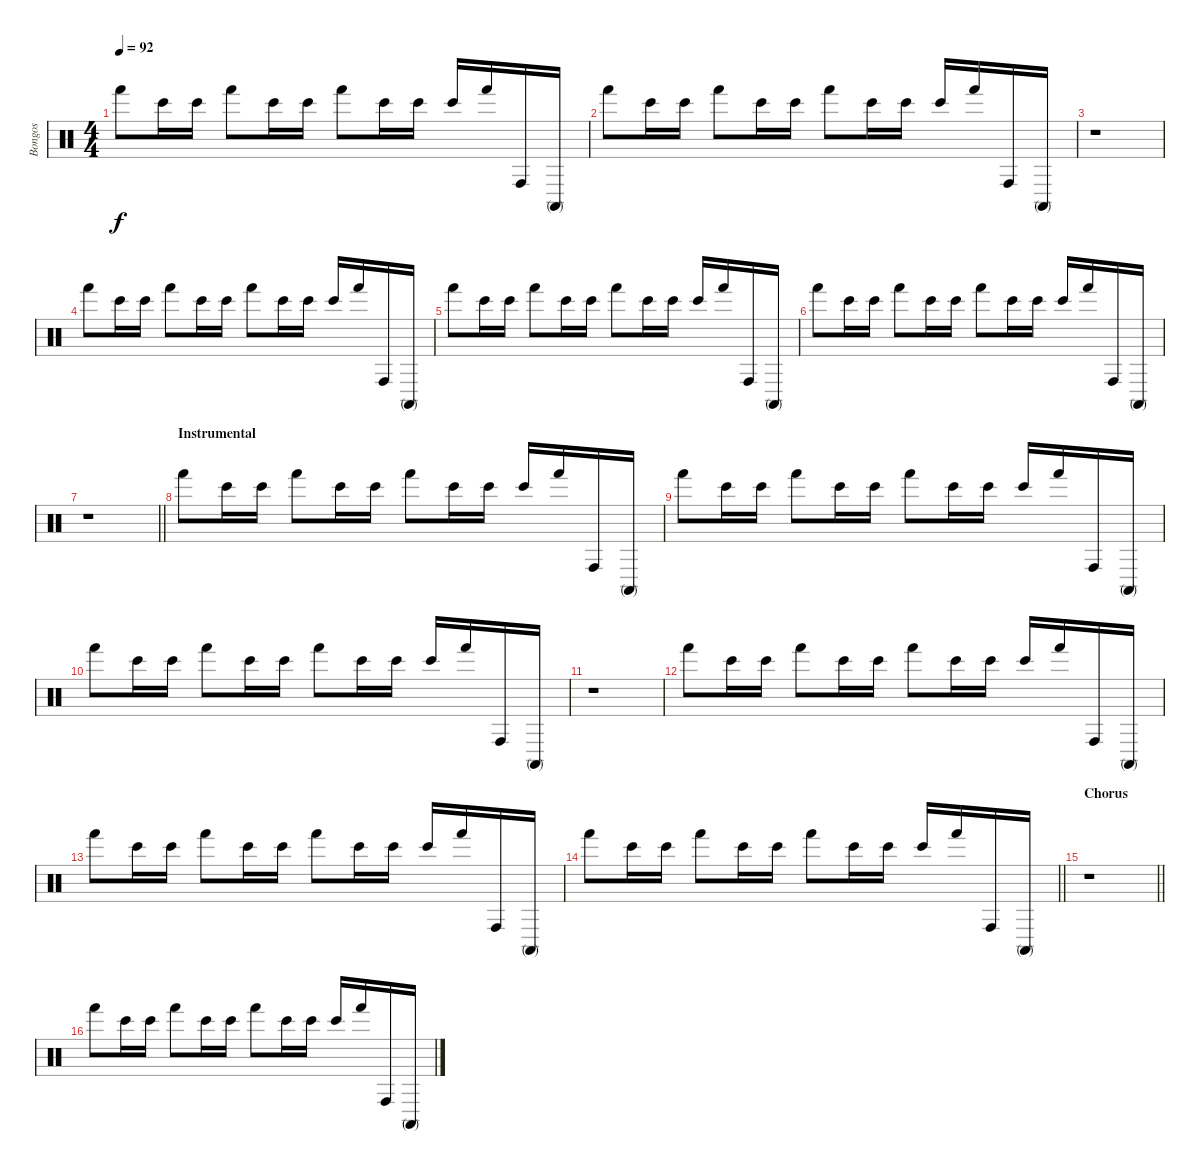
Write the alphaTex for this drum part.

\track ("Bongos" "Bongos") {instrument percussion}
\staff {score}
\articulation defaults
\ts (4 4)
\tempo 92
\clef neutral
\ks c "Hand (hit)".8{dy f} "Bongo High (hit)".16 "Bongo High (hit)".16 "Hand (hit)".8 "Bongo High (hit)".16 "Bongo High (hit)".16 "Hand (hit)".8 "Bongo High (hit)".16 "Bongo High (hit)".16 "Bongo High (hit)".16 "Hand (hit)".16 "Conga high (hit)".16 "Conga high (mute)".16
|
"Hand (hit)".8 "Bongo High (hit)".16 "Bongo High (hit)".16 "Hand (hit)".8 "Bongo High (hit)".16 "Bongo High (hit)".16 "Hand (hit)".8 "Bongo High (hit)".16 "Bongo High (hit)".16 "Bongo High (hit)".16 "Hand (hit)".16 "Conga high (hit)".16 "Conga high (mute)".16 |
r.1 |
"Hand (hit)".8{volume 8} "Bongo High (hit)".16 "Bongo High (hit)".16 "Hand (hit)".8 "Bongo High (hit)".16 "Bongo High (hit)".16 "Hand (hit)".8 "Bongo High (hit)".16 "Bongo High (hit)".16 "Bongo High (hit)".16 "Hand (hit)".16 "Conga high (hit)".16 "Conga high (mute)".16 |
"Hand (hit)".8 "Bongo High (hit)".16 "Bongo High (hit)".16 "Hand (hit)".8 "Bongo High (hit)".16 "Bongo High (hit)".16 "Hand (hit)".8 "Bongo High (hit)".16 "Bongo High (hit)".16 "Bongo High (hit)".16 "Hand (hit)".16 "Conga high (hit)".16 "Conga high (mute)".16 |
"Hand (hit)".8 "Bongo High (hit)".16 "Bongo High (hit)".16 "Hand (hit)".8 "Bongo High (hit)".16 "Bongo High (hit)".16 "Hand (hit)".8 "Bongo High (hit)".16 "Bongo High (hit)".16 "Bongo High (hit)".16 "Hand (hit)".16 "Conga high (hit)".16 "Conga high (mute)".16 |
\barLineRight lightlight
r.1 |
\section ("" "Instrumental")
"Hand (hit)".8{volume 8} "Bongo High (hit)".16 "Bongo High (hit)".16 "Hand (hit)".8 "Bongo High (hit)".16 "Bongo High (hit)".16 "Hand (hit)".8 "Bongo High (hit)".16 "Bongo High (hit)".16 "Bongo High (hit)".16 "Hand (hit)".16 "Conga high (hit)".16 "Conga high (mute)".16 |
"Hand (hit)".8 "Bongo High (hit)".16 "Bongo High (hit)".16 "Hand (hit)".8 "Bongo High (hit)".16 "Bongo High (hit)".16 "Hand (hit)".8 "Bongo High (hit)".16 "Bongo High (hit)".16 "Bongo High (hit)".16 "Hand (hit)".16 "Conga high (hit)".16 "Conga high (mute)".16 |
"Hand (hit)".8 "Bongo High (hit)".16 "Bongo High (hit)".16 "Hand (hit)".8 "Bongo High (hit)".16 "Bongo High (hit)".16 "Hand (hit)".8 "Bongo High (hit)".16 "Bongo High (hit)".16 "Bongo High (hit)".16 "Hand (hit)".16 "Conga high (hit)".16 "Conga high (mute)".16 |
r.1 |
"Hand (hit)".8{volume 8} "Bongo High (hit)".16 "Bongo High (hit)".16 "Hand (hit)".8 "Bongo High (hit)".16 "Bongo High (hit)".16 "Hand (hit)".8 "Bongo High (hit)".16 "Bongo High (hit)".16 "Bongo High (hit)".16 "Hand (hit)".16 "Conga high (hit)".16 "Conga high (mute)".16 |
"Hand (hit)".8 "Bongo High (hit)".16 "Bongo High (hit)".16 "Hand (hit)".8 "Bongo High (hit)".16 "Bongo High (hit)".16 "Hand (hit)".8 "Bongo High (hit)".16 "Bongo High (hit)".16 "Bongo High (hit)".16 "Hand (hit)".16 "Conga high (hit)".16 "Conga high (mute)".16 |
\barLineRight lightlight "Hand (hit)".8 "Bongo High (hit)".16 "Bongo High (hit)".16 "Hand (hit)".8 "Bongo High (hit)".16 "Bongo High (hit)".16 "Hand (hit)".8 "Bongo High (hit)".16 "Bongo High (hit)".16 "Bongo High (hit)".16 "Hand (hit)".16 "Conga high (hit)".16 "Conga high (mute)".16
|
\section ("" "Chorus")
\barLineRight lightlight
r.1 |
"Hand (hit)".8 "Bongo High (hit)".16 "Bongo High (hit)".16 "Hand (hit)".8 "Bongo High (hit)".16 "Bongo High (hit)".16 "Hand (hit)".8 "Bongo High (hit)".16 "Bongo High (hit)".16 "Bongo High (hit)".16 "Hand (hit)".16 "Conga high (hit)".16 "Conga high (mute)".16
